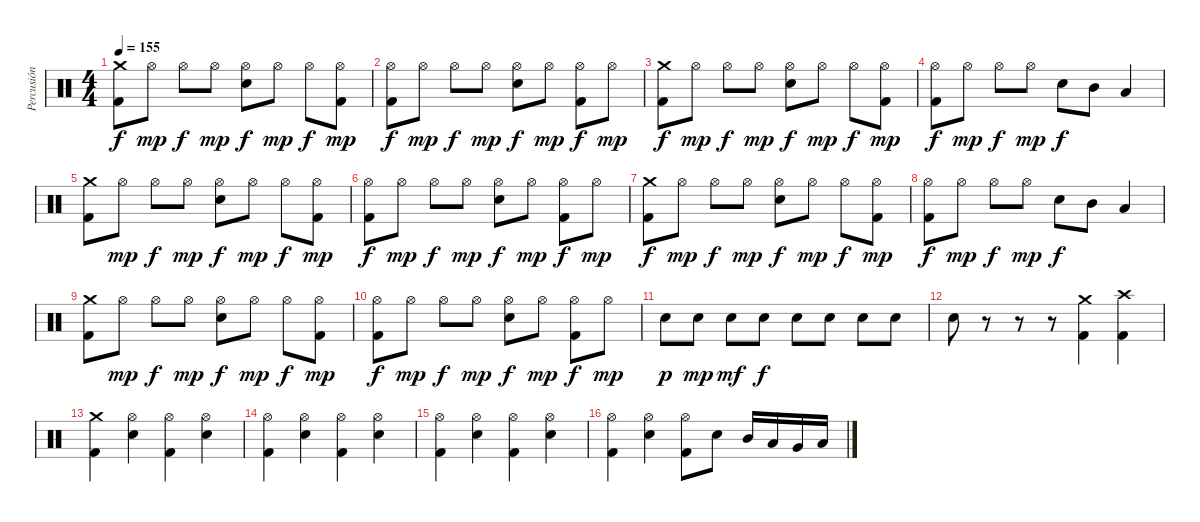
\track ("Percusión" "Percusión") {instrument percussion}
\staff {score}
\articulation defaults
\ts (4 4)
\tempo 155
\clef neutral
\ks c
("Crash medium (hit)" "Kick (hit) 2").8{dy f} "Hi-Hat (open)".8{dy mp} "Hi-Hat (open)".8{dy f} "Hi-Hat (open)".8{dy mp} ("Hi-Hat (open)" "Electric Snare (hit)").8{dy f} "Hi-Hat (open)".8{dy mp} "Hi-Hat (open)".8{dy f} ("Hi-Hat (open)" "Kick (hit) 2").8{dy mp} |
("Hi-Hat (open)" "Kick (hit) 2").8{dy f} "Hi-Hat (open)".8{dy mp} "Hi-Hat (open)".8{dy f} "Hi-Hat (open)".8{dy mp} ("Hi-Hat (open)" "Electric Snare (hit)").8{dy f} "Hi-Hat (open)".8{dy mp} ("Hi-Hat (open)" "Kick (hit) 2").8{dy f} "Hi-Hat (open)".8{dy mp} |
("Crash medium (hit)" "Kick (hit) 2").8{dy f} "Hi-Hat (open)".8{dy mp} "Hi-Hat (open)".8{dy f} "Hi-Hat (open)".8{dy mp} ("Hi-Hat (open)" "Electric Snare (hit)").8{dy f} "Hi-Hat (open)".8{dy mp} "Hi-Hat (open)".8{dy f} ("Hi-Hat (open)" "Kick (hit) 2").8{dy mp} |
("Hi-Hat (open)" "Kick (hit) 2").8{dy f} "Hi-Hat (open)".8{dy mp} "Hi-Hat (open)".8{dy f} "Hi-Hat (open)".8{dy mp} "Electric Snare (hit)".8{dy f} "Mid Tom (hit)".8 "Low Tom (hit)".4 |
("Crash medium (hit)" "Kick (hit) 2").8 "Hi-Hat (open)".8{dy mp} "Hi-Hat (open)".8{dy f} "Hi-Hat (open)".8{dy mp} ("Hi-Hat (open)" "Electric Snare (hit)").8{dy f} "Hi-Hat (open)".8{dy mp} "Hi-Hat (open)".8{dy f} ("Hi-Hat (open)" "Kick (hit) 2").8{dy mp} |
("Hi-Hat (open)" "Kick (hit) 2").8{dy f} "Hi-Hat (open)".8{dy mp} "Hi-Hat (open)".8{dy f} "Hi-Hat (open)".8{dy mp} ("Hi-Hat (open)" "Electric Snare (hit)").8{dy f} "Hi-Hat (open)".8{dy mp} ("Hi-Hat (open)" "Kick (hit) 2").8{dy f} "Hi-Hat (open)".8{dy mp} |
("Crash medium (hit)" "Kick (hit) 2").8{dy f} "Hi-Hat (open)".8{dy mp} "Hi-Hat (open)".8{dy f} "Hi-Hat (open)".8{dy mp} ("Hi-Hat (open)" "Electric Snare (hit)").8{dy f} "Hi-Hat (open)".8{dy mp} "Hi-Hat (open)".8{dy f} ("Hi-Hat (open)" "Kick (hit) 2").8{dy mp} |
("Hi-Hat (open)" "Kick (hit) 2").8{dy f} "Hi-Hat (open)".8{dy mp} "Hi-Hat (open)".8{dy f} "Hi-Hat (open)".8{dy mp} "Electric Snare (hit)".8{dy f} "Mid Tom (hit)".8 "Low Tom (hit)".4 |
("Crash medium (hit)" "Kick (hit) 2").8 "Hi-Hat (open)".8{dy mp} "Hi-Hat (open)".8{dy f} "Hi-Hat (open)".8{dy mp} ("Hi-Hat (open)" "Electric Snare (hit)").8{dy f} "Hi-Hat (open)".8{dy mp} "Hi-Hat (open)".8{dy f} ("Hi-Hat (open)" "Kick (hit) 2").8{dy mp} |
("Hi-Hat (open)" "Kick (hit) 2").8{dy f} "Hi-Hat (open)".8{dy mp} "Hi-Hat (open)".8{dy f} "Hi-Hat (open)".8{dy mp} ("Hi-Hat (open)" "Electric Snare (hit)").8{dy f} "Hi-Hat (open)".8{dy mp} ("Hi-Hat (open)" "Kick (hit) 2").8{dy f} "Hi-Hat (open)".8{dy mp} |
"Electric Snare (hit)".8{dy p} "Electric Snare (hit)".8{dy mp} "Electric Snare (hit)".8{dy mf} "Electric Snare (hit)".8{dy f} "Electric Snare (hit)".8 "Electric Snare (hit)".8 "Electric Snare (hit)".8 "Electric Snare (hit)".8 |
"Electric Snare (hit)".8 r.8 r.8 r.8 ("Crash medium (hit)" "Kick (hit) 2").4 ("Crash high (hit)" "Kick (hit) 2").4 |
("Crash medium (hit)" "Kick (hit) 2").4 ("Hi-Hat (open)" "Electric Snare (hit)").4 ("Hi-Hat (open)" "Kick (hit) 2").4 ("Hi-Hat (open)" "Electric Snare (hit)").4 |
("Hi-Hat (open)" "Kick (hit) 2").4 ("Hi-Hat (open)" "Electric Snare (hit)").4 ("Hi-Hat (open)" "Kick (hit) 2").4 ("Hi-Hat (open)" "Electric Snare (hit)").4 |
("Hi-Hat (open)" "Kick (hit) 2").4 ("Hi-Hat (open)" "Electric Snare (hit)").4 ("Hi-Hat (open)" "Kick (hit) 2").4 ("Hi-Hat (open)" "Electric Snare (hit)").4 |
("Hi-Hat (open)" "Kick (hit) 2").4 ("Hi-Hat (open)" "Electric Snare (hit)").4 ("Hi-Hat (open)" "Kick (hit) 2").8 "Electric Snare (hit)".8 "Mid Tom (hit)".16 "Low Tom (hit)".16 "Very Low Tom (hit)".16 "Low Floor Tom (hit)".16
